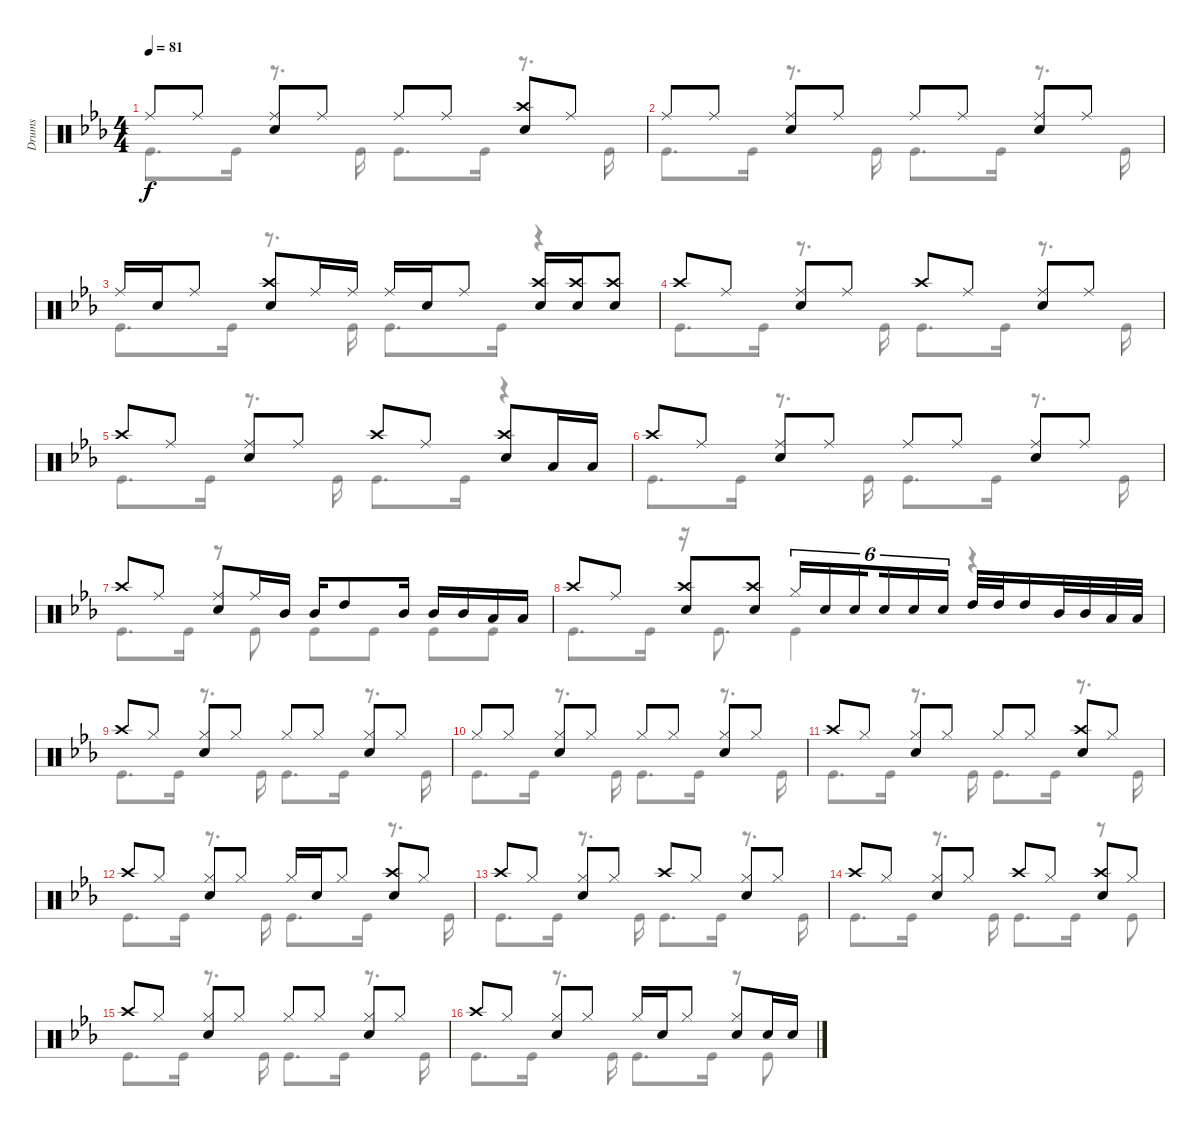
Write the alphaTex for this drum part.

\track ("Drums" "Drums") {instrument percussion}
\staff {score}
\articulation defaults
\voice
\ts (4 4)
\tempo 81
\clef neutral
\ks eb "Ride (middle)".8{dy f beam Up} "Ride (middle)".8{beam Up}
("Ride (middle)" "Snare (hit) 2").8{beam Up} "Ride (middle)".8{beam Up} "Ride (middle)".8{beam Up} "Ride (middle)".8{beam Up} ("Crash high (hit)" "Snare (hit) 2").8{beam Up} "Ride (middle)".8{beam Up} |
"Ride (middle)".8{beam Up} "Ride (middle)".8{beam Up} ("Ride (middle)" "Snare (hit) 2").8{beam Up} "Ride (middle)".8{beam Up} "Ride (middle)".8{beam Up} "Ride (middle)".8{beam Up} ("Ride (middle)" "Snare (hit) 2").8{beam Up} "Ride (middle)".8{beam Up} |
"Ride (middle)".16{beam Up} "Snare (hit) 2".16{beam Up} "Ride (middle)".8{beam Up} ("Snare (hit) 2" "Crash high (hit)").8{beam Up} "Ride (middle)".16{beam Up} "Ride (middle)".16{beam Up} "Ride (middle)".16{beam Up} "Snare (hit) 2".16{beam Up} "Ride (middle)".8{beam Up} ("Snare (hit) 2" "Crash high (hit)").16{beam Up} ("Crash high (hit)" "Snare (hit) 2").16{beam Up} ("Snare (hit) 2" "Crash high (hit)").8{beam Up} |
"Crash high (hit)".8{beam Up} "Ride (middle)".8{beam Up} ("Ride (middle)" "Snare (hit) 2").8{beam Up} "Ride (middle)".8{beam Up} "Crash high (hit)".8{beam Up} "Ride (middle)".8{beam Up} ("Ride (middle)" "Snare (hit) 2").8{beam Up} "Ride (middle)".8{beam Up} |
"Crash high (hit)".8{beam Up} "Ride (middle)".8{beam Up} ("Ride (middle)" "Snare (hit) 2").8{beam Up} "Ride (middle)".8{beam Up} "Crash high (hit)".8{beam Up} "Ride (middle)".8{beam Up} ("Crash high (hit)" "Snare (hit) 2").8{beam Up} "Low Tom (hit)".16{beam Up} "Low Tom (hit)".16{beam Up} |
"Crash high (hit)".8{beam Up} "Ride (middle)".8{beam Up} ("Ride (middle)" "Snare (hit) 2").8{beam Up} "Ride (middle)".8{beam Up} "Ride (middle)".8{beam Up} "Ride (middle)".8{beam Up} ("Ride (middle)" "Snare (hit) 2").8{beam Up} "Ride (middle)".8{beam Up} |
"Crash high (hit)".8{beam Up} "Ride (middle)".8{beam Up} ("Ride (middle)" "Snare (hit) 2").8{beam Up} "Ride (middle)".16{beam Up} "Mid Tom (hit)".16{beam Up} "Mid Tom (hit)".16{beam Up} "High Tom (hit)".8{beam Up} "Mid Tom (hit)".16{beam Up} "Mid Tom (hit)".16{beam Up} "Mid Tom (hit)".16{beam Up} "Low Tom (hit)".16{beam Up} "Low Tom (hit)".16{beam Up} |
"Crash high (hit)".8{beam Up} "Ride (middle)".8{beam Up} ("Snare (hit) 2" "Crash high (hit)").8{beam Up} ("Crash high (hit)" "Snare (hit) 2").8{beam Up} "Hi-Hat (closed)".16{tu (6 4) beam Up} "Snare (hit) 2".16{tu (6 4) beam Up} "Snare (hit) 2".16{tu (6 4) beam Up beam splitsecondary} "Snare (hit) 2".16{tu (6 4) beam Up} "Snare (hit) 2".16{tu (6 4) beam Up} "Snare (hit) 2".16{tu (6 4) beam Up} "High Tom (hit)".32{beam Up} "High Tom (hit)".32{beam Up} "High Tom (hit)".16{beam Up} "Mid Tom (hit)".32{beam Up} "Mid Tom (hit)".32{beam Up} "Low Tom (hit)".32{beam Up} "Low Tom (hit)".32{beam Up} |
"Crash high (hit)".8{beam Up} "Hi-Hat (closed)".8{beam Up} ("Hi-Hat (closed)" "Snare (hit) 2").8{beam Up} "Hi-Hat (closed)".8{beam Up} "Hi-Hat (closed)".8{beam Up} "Hi-Hat (closed)".8{beam Up} ("Hi-Hat (closed)" "Snare (hit) 2").8{beam Up} "Hi-Hat (closed)".8{beam Up} |
"Hi-Hat (closed)".8{beam Up} "Hi-Hat (closed)".8{beam Up} ("Hi-Hat (closed)" "Snare (hit) 2").8{beam Up} "Hi-Hat (closed)".8{beam Up} "Hi-Hat (closed)".8{beam Up} "Hi-Hat (closed)".8{beam Up} ("Hi-Hat (closed)" "Snare (hit) 2").8{beam Up} "Hi-Hat (closed)".8{beam Up} |
"Crash high (hit)".8{beam Up} "Hi-Hat (closed)".8{beam Up} ("Hi-Hat (closed)" "Snare (hit) 2").8{beam Up} "Hi-Hat (closed)".8{beam Up} "Hi-Hat (closed)".8{beam Up} "Hi-Hat (closed)".8{beam Up} ("Snare (hit) 2" "Crash high (hit)").8{beam Up} "Hi-Hat (closed)".8{beam Up} |
"Crash high (hit)".8{beam Up} "Hi-Hat (closed)".8{beam Up} ("Hi-Hat (closed)" "Snare (hit) 2").8{beam Up} "Hi-Hat (closed)".8{beam Up} "Hi-Hat (closed)".16{beam Up} "Snare (hit) 2".16{beam Up} "Hi-Hat (closed)".8{beam Up} ("Crash high (hit)" "Snare (hit) 2").8{beam Up} "Hi-Hat (closed)".8{beam Up} |
"Crash high (hit)".8{beam Up} "Hi-Hat (closed)".8{beam Up} ("Hi-Hat (closed)" "Snare (hit) 2").8{beam Up} "Hi-Hat (closed)".8{beam Up} "Crash high (hit)".8{beam Up} "Hi-Hat (closed)".8{beam Up} ("Hi-Hat (closed)" "Snare (hit) 2").8{beam Up} "Hi-Hat (closed)".8{beam Up} |
"Crash high (hit)".8{beam Up} "Hi-Hat (closed)".8{beam Up} ("Hi-Hat (closed)" "Snare (hit) 2").8{beam Up} "Hi-Hat (closed)".8{beam Up} "Crash high (hit)".8{beam Up} "Hi-Hat (closed)".8{beam Up} ("Crash high (hit)" "Snare (hit) 2").8{beam Up} "Hi-Hat (closed)".8{beam Up} |
"Crash high (hit)".8{beam Up} "Hi-Hat (closed)".8{beam Up} ("Hi-Hat (closed)" "Snare (hit) 2").8{beam Up} "Hi-Hat (closed)".8{beam Up} "Hi-Hat (closed)".8{beam Up} "Hi-Hat (closed)".8{beam Up} ("Hi-Hat (closed)" "Snare (hit) 2").8{beam Up} "Hi-Hat (closed)".8{beam Up} |
"Crash high (hit)".8{beam Up} "Hi-Hat (closed)".8{beam Up} ("Hi-Hat (closed)" "Snare (hit) 2").8{beam Up} "Hi-Hat (closed)".8{beam Up} "Hi-Hat (closed)".16{beam Up} "Snare (hit) 2".16{beam Up} "Hi-Hat (closed)".8{beam Up} ("Snare (hit) 2" "Hi-Hat (closed)").8{beam Up} "Snare (hit) 2".16{beam Up} "Snare (hit) 2".16{beam Up}
\voice
\clef neutral
\ottava regular
\simile none
\ks eb "Kick (hit)".8{d dy f} "Kick (hit)".16
r.8{d} "Kick (hit)".16 "Kick (hit)".8{d} "Kick (hit)".16 r.8{d} "Kick (hit)".16 |
"Kick (hit)".8{d} "Kick (hit)".16 r.8{d} "Kick (hit)".16 "Kick (hit)".8{d} "Kick (hit)".16 r.8{d} "Kick (hit)".16 |
"Kick (hit)".8{d} "Kick (hit)".16 r.8{d} "Kick (hit)".16 "Kick (hit)".8{d} "Kick (hit)".16 r.4 |
"Kick (hit)".8{d} "Kick (hit)".16 r.8{d} "Kick (hit)".16 "Kick (hit)".8{d} "Kick (hit)".16 r.8{d} "Kick (hit)".16 |
"Kick (hit)".8{d} "Kick (hit)".16 r.8{d} "Kick (hit)".16 "Kick (hit)".8{d} "Kick (hit)".16 r.4 |
"Kick (hit)".8{d} "Kick (hit)".16 r.8{d} "Kick (hit)".16 "Kick (hit)".8{d} "Kick (hit)".16 r.8{d} "Kick (hit)".16 |
"Kick (hit)".8{d} "Kick (hit)".16 r.8 "Kick (hit)".8 "Kick (hit)".8 "Kick (hit)".8 "Kick (hit)".8 "Kick (hit)".8 |
"Kick (hit)".8{d} "Kick (hit)".16 r.16 "Kick (hit)".8{d} "Kick (hit)".4 r.4 |
"Kick (hit)".8{d} "Kick (hit)".16 r.8{d} "Kick (hit)".16 "Kick (hit)".8{d} "Kick (hit)".16 r.8{d} "Kick (hit)".16 |
"Kick (hit)".8{d} "Kick (hit)".16 r.8{d} "Kick (hit)".16 "Kick (hit)".8{d} "Kick (hit)".16 r.8{d} "Kick (hit)".16 |
"Kick (hit)".8{d} "Kick (hit)".16 r.8{d} "Kick (hit)".16 "Kick (hit)".8{d} "Kick (hit)".16 r.8{d} "Kick (hit)".16 |
"Kick (hit)".8{d} "Kick (hit)".16 r.8{d} "Kick (hit)".16 "Kick (hit)".8{d} "Kick (hit)".16 r.8{d} "Kick (hit)".16 |
"Kick (hit)".8{d} "Kick (hit)".16 r.8{d} "Kick (hit)".16 "Kick (hit)".8{d} "Kick (hit)".16 r.8{d} "Kick (hit)".16 |
"Kick (hit)".8{d} "Kick (hit)".16 r.8{d} "Kick (hit)".16 "Kick (hit)".8{d} "Kick (hit)".16 r.8 "Kick (hit)".8 |
"Kick (hit)".8{d} "Kick (hit)".16 r.8{d} "Kick (hit)".16 "Kick (hit)".8{d} "Kick (hit)".16 r.8{d} "Kick (hit)".16 |
"Kick (hit)".8{d} "Kick (hit)".16 r.8{d} "Kick (hit)".16 "Kick (hit)".8{d} "Kick (hit)".16 r.8 "Kick (hit)".8
